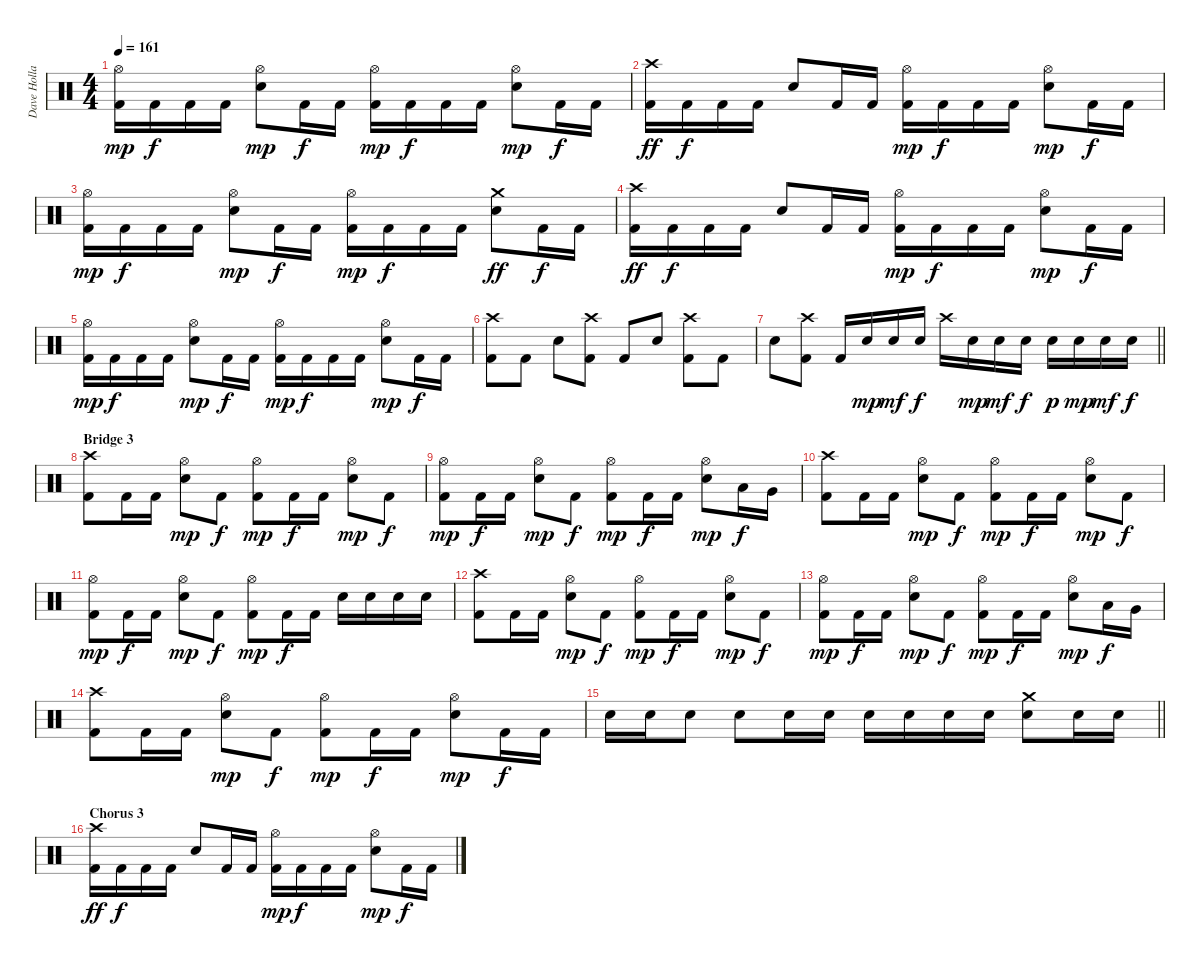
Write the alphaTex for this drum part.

\track ("Dave Holland" "Dave Holla") {instrument percussion}
\staff {score}
\articulation defaults
\ts (4 4)
\tempo 161
\clef neutral
\ks c
("Kick (hit) 2" "Hi-Hat (open)").16{dy mp} "Kick (hit) 2".16{dy f} "Kick (hit) 2".16 "Kick (hit) 2".16 ("Hi-Hat (open)" "Snare (hit) 2").8{dy mp} "Kick (hit) 2".16{dy f} "Kick (hit) 2".16 ("Kick (hit) 2" "Hi-Hat (open)").16{dy mp} "Kick (hit) 2".16{dy f} "Kick (hit) 2".16 "Kick (hit) 2".16 ("Hi-Hat (open)" "Snare (hit) 2").8{dy mp} "Kick (hit) 2".16{dy f} "Kick (hit) 2".16 |
("Kick (hit) 2" "Crash high (hit)").16{dy ff} "Kick (hit) 2".16{dy f} "Kick (hit) 2".16 "Kick (hit) 2".16 "Snare (hit) 2".8 "Kick (hit) 2".16 "Kick (hit) 2".16 ("Kick (hit) 2" "Hi-Hat (open)").16{dy mp} "Kick (hit) 2".16{dy f} "Kick (hit) 2".16 "Kick (hit) 2".16 ("Hi-Hat (open)" "Snare (hit) 2").8{dy mp} "Kick (hit) 2".16{dy f} "Kick (hit) 2".16 |
("Kick (hit) 2" "Hi-Hat (open)").16{dy mp} "Kick (hit) 2".16{dy f} "Kick (hit) 2".16 "Kick (hit) 2".16 ("Hi-Hat (open)" "Snare (hit) 2").8{dy mp} "Kick (hit) 2".16{dy f} "Kick (hit) 2".16 ("Kick (hit) 2" "Hi-Hat (open)").16{dy mp} "Kick (hit) 2".16{dy f} "Kick (hit) 2".16 "Kick (hit) 2".16 ("Crash medium (hit)" "Snare (hit) 2").8{dy ff} "Kick (hit) 2".16{dy f} "Kick (hit) 2".16 |
("Kick (hit) 2" "Crash high (hit)").16{dy ff} "Kick (hit) 2".16{dy f} "Kick (hit) 2".16 "Kick (hit) 2".16 "Snare (hit) 2".8 "Kick (hit) 2".16 "Kick (hit) 2".16 ("Kick (hit) 2" "Hi-Hat (open)").16{dy mp} "Kick (hit) 2".16{dy f} "Kick (hit) 2".16 "Kick (hit) 2".16 ("Hi-Hat (open)" "Snare (hit) 2").8{dy mp} "Kick (hit) 2".16{dy f} "Kick (hit) 2".16 |
("Kick (hit) 2" "Hi-Hat (open)").16{dy mp} "Kick (hit) 2".16{dy f} "Kick (hit) 2".16 "Kick (hit) 2".16 ("Hi-Hat (open)" "Snare (hit) 2").8{dy mp} "Kick (hit) 2".16{dy f} "Kick (hit) 2".16 ("Kick (hit) 2" "Hi-Hat (open)").16{dy mp} "Kick (hit) 2".16{dy f} "Kick (hit) 2".16 "Kick (hit) 2".16 ("Hi-Hat (open)" "Snare (hit) 2").8{dy mp} "Kick (hit) 2".16{dy f} "Kick (hit) 2".16 |
("Kick (hit) 2" "Crash high (hit)").8 "Kick (hit) 2".8 "Snare (hit) 2".8 ("Kick (hit) 2" "Crash high (hit)").8 "Kick (hit) 2".8 "Snare (hit) 2".8 ("Kick (hit) 2" "Crash high (hit)").8 "Kick (hit) 2".8 |
\barLineRight lightlight "Snare (hit) 2".8
("Kick (hit) 2" "Crash high (hit)").8 "Kick (hit) 2".16 "Snare (hit) 2".16{dy mp} "Snare (hit) 2".16{dy mf} "Snare (hit) 2".16{dy f} "Crash high (hit)".16 "Snare (hit) 2".16{dy mp} "Snare (hit) 2".16{dy mf} "Snare (hit) 2".16{dy f} "Snare (hit) 2".16{dy p} "Snare (hit) 2".16{dy mp} "Snare (hit) 2".16{dy mf} "Snare (hit) 2".16{dy f} |
\section ("" "Bridge 3")
("Kick (hit) 2" "Crash high (hit)").8 "Kick (hit) 2".16 "Kick (hit) 2".16 ("Hi-Hat (open)" "Snare (hit) 2").8{dy mp} "Kick (hit) 2".8{dy f} ("Kick (hit) 2" "Hi-Hat (open)").8{dy mp} "Kick (hit) 2".16{dy f} "Kick (hit) 2".16 ("Hi-Hat (open)" "Snare (hit) 2").8{dy mp} "Kick (hit) 2".8{dy f} |
("Kick (hit) 2" "Hi-Hat (open)").8{dy mp} "Kick (hit) 2".16{dy f} "Kick (hit) 2".16 ("Hi-Hat (open)" "Snare (hit) 2").8{dy mp} "Kick (hit) 2".8{dy f} ("Kick (hit) 2" "Hi-Hat (open)").8{dy mp} "Kick (hit) 2".16{dy f} "Kick (hit) 2".16 ("Hi-Hat (open)" "Snare (hit) 2").8{dy mp} "Low Tom (hit)".16{dy f} "Very Low Tom (hit)".16 |
("Kick (hit) 2" "Crash high (hit)").8 "Kick (hit) 2".16 "Kick (hit) 2".16 ("Hi-Hat (open)" "Snare (hit) 2").8{dy mp} "Kick (hit) 2".8{dy f} ("Kick (hit) 2" "Hi-Hat (open)").8{dy mp} "Kick (hit) 2".16{dy f} "Kick (hit) 2".16 ("Hi-Hat (open)" "Snare (hit) 2").8{dy mp} "Kick (hit) 2".8{dy f} |
("Kick (hit) 2" "Hi-Hat (open)").8{dy mp} "Kick (hit) 2".16{dy f} "Kick (hit) 2".16 ("Hi-Hat (open)" "Snare (hit) 2").8{dy mp} "Kick (hit) 2".8{dy f} ("Kick (hit) 2" "Hi-Hat (open)").8{dy mp} "Kick (hit) 2".16{dy f} "Kick (hit) 2".16 "Snare (hit) 2".16 "Snare (hit) 2".16 "Snare (hit) 2".16 "Snare (hit) 2".16 |
("Kick (hit) 2" "Crash high (hit)").8 "Kick (hit) 2".16 "Kick (hit) 2".16 ("Hi-Hat (open)" "Snare (hit) 2").8{dy mp} "Kick (hit) 2".8{dy f} ("Kick (hit) 2" "Hi-Hat (open)").8{dy mp} "Kick (hit) 2".16{dy f} "Kick (hit) 2".16 ("Hi-Hat (open)" "Snare (hit) 2").8{dy mp} "Kick (hit) 2".8{dy f} |
("Kick (hit) 2" "Hi-Hat (open)").8{dy mp} "Kick (hit) 2".16{dy f} "Kick (hit) 2".16 ("Hi-Hat (open)" "Snare (hit) 2").8{dy mp} "Kick (hit) 2".8{dy f} ("Kick (hit) 2" "Hi-Hat (open)").8{dy mp} "Kick (hit) 2".16{dy f} "Kick (hit) 2".16 ("Hi-Hat (open)" "Snare (hit) 2").8{dy mp} "Low Tom (hit)".16{dy f} "Very Low Tom (hit)".16 |
("Kick (hit) 2" "Crash high (hit)").8 "Kick (hit) 2".16 "Kick (hit) 2".16 ("Hi-Hat (open)" "Snare (hit) 2").8{dy mp} "Kick (hit) 2".8{dy f} ("Kick (hit) 2" "Hi-Hat (open)").8{dy mp} "Kick (hit) 2".16{dy f} "Kick (hit) 2".16 ("Hi-Hat (open)" "Snare (hit) 2").8{dy mp} "Kick (hit) 2".16{dy f} "Kick (hit) 2".16 |
\barLineRight lightlight "Snare (hit) 2".16 "Snare (hit) 2".16 "Snare (hit) 2".8 "Snare (hit) 2".8 "Snare (hit) 2".16 "Snare (hit) 2".16 "Snare (hit) 2".16 "Snare (hit) 2".16 "Snare (hit) 2".16 "Snare (hit) 2".16
("Crash medium (hit)" "Snare (hit) 2").8 "Snare (hit) 2".16 "Snare (hit) 2".16 |
\section ("" "Chorus 3")
("Kick (hit) 2" "Crash high (hit)").16{dy ff} "Kick (hit) 2".16{dy f} "Kick (hit) 2".16 "Kick (hit) 2".16 "Snare (hit) 2".8 "Kick (hit) 2".16 "Kick (hit) 2".16 ("Kick (hit) 2" "Hi-Hat (open)").16{dy mp} "Kick (hit) 2".16{dy f} "Kick (hit) 2".16 "Kick (hit) 2".16 ("Hi-Hat (open)" "Snare (hit) 2").8{dy mp} "Kick (hit) 2".16{dy f} "Kick (hit) 2".16
